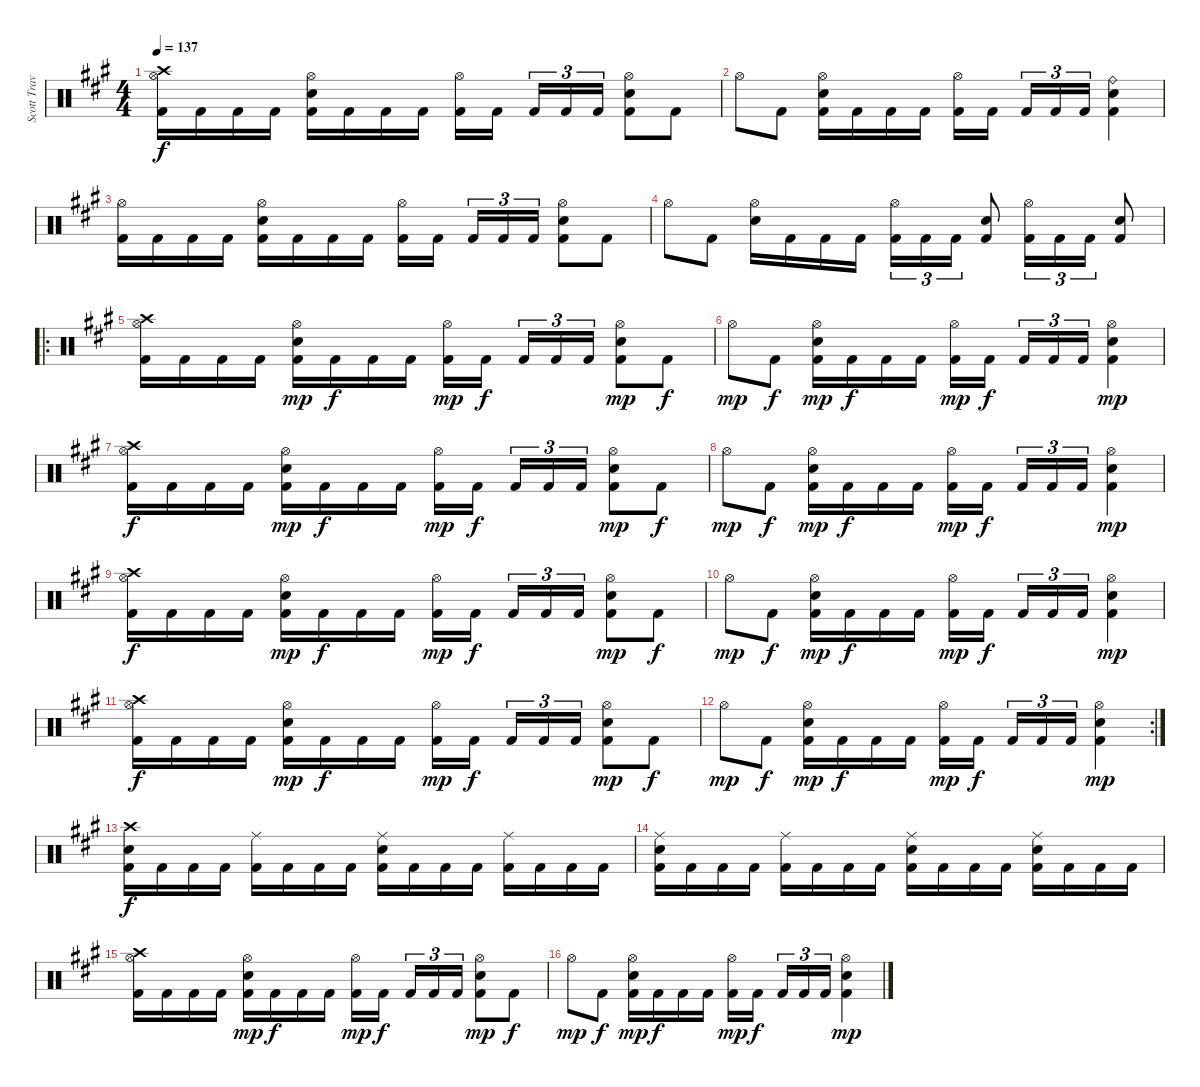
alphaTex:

\track ("Scott Travis" "Scott Trav") {instrument percussion}
\staff {score}
\articulation defaults
\ts (4 4)
\tempo 137
\clef neutral
\ks f#minor
("Hi-Hat (open)" "Crash high (hit)" "Kick (hit) 2").16{dy f} "Kick (hit) 2".16 "Kick (hit) 2".16 "Kick (hit) 2".16 ("Hi-Hat (open)" "Snare (hit) 2" "Kick (hit) 2").16 "Kick (hit) 2".16 "Kick (hit) 2".16 "Kick (hit) 2".16 ("Hi-Hat (open)" "Kick (hit) 2").16 "Kick (hit) 2".16 "Kick (hit) 2".16{tu (3 2)} "Kick (hit) 2".16{tu (3 2)} "Kick (hit) 2".16{tu (3 2)} ("Hi-Hat (open)" "Snare (hit) 2" "Kick (hit) 2").8 "Kick (hit) 2".8 |
"Hi-Hat (open)".8 "Kick (hit) 2".8 ("Hi-Hat (open)" "Snare (hit) 2" "Kick (hit) 2").16 "Kick (hit) 2".16 "Kick (hit) 2".16 "Kick (hit) 2".16 ("Hi-Hat (open)" "Kick (hit) 2").16 "Kick (hit) 2".16 "Kick (hit) 2".16{tu (3 2)} "Kick (hit) 2".16{tu (3 2)} "Kick (hit) 2".16{tu (3 2)} ("Ride (bell)" "Snare (hit) 2" "Kick (hit) 2").4 |
("Hi-Hat (open)" "Kick (hit) 2").16 "Kick (hit) 2".16 "Kick (hit) 2".16 "Kick (hit) 2".16 ("Hi-Hat (open)" "Snare (hit) 2" "Kick (hit) 2").16 "Kick (hit) 2".16 "Kick (hit) 2".16 "Kick (hit) 2".16 ("Hi-Hat (open)" "Kick (hit) 2").16 "Kick (hit) 2".16 "Kick (hit) 2".16{tu (3 2)} "Kick (hit) 2".16{tu (3 2)} "Kick (hit) 2".16{tu (3 2)} ("Hi-Hat (open)" "Snare (hit) 2" "Kick (hit) 2").8 "Kick (hit) 2".8 |
"Hi-Hat (open)".8 "Kick (hit) 2".8 ("Hi-Hat (open)" "Snare (hit) 2").16 "Kick (hit) 2".16 "Kick (hit) 2".16 "Kick (hit) 2".16 ("Hi-Hat (open)" "Kick (hit) 2").16{tu (3 2)} "Kick (hit) 2".16{tu (3 2)} "Kick (hit) 2".16{tu (3 2)} ("Snare (hit) 2" "Kick (hit) 2").8 ("Hi-Hat (open)" "Kick (hit) 2").16{tu (3 2)} "Kick (hit) 2".16{tu (3 2)} "Kick (hit) 2".16{tu (3 2)} ("Snare (hit) 2" "Kick (hit) 2").8 |
\ro
("Hi-Hat (open)" "Crash high (hit)" "Kick (hit) 2").16 "Kick (hit) 2".16 "Kick (hit) 2".16 "Kick (hit) 2".16 ("Hi-Hat (open)" "Snare (hit) 2" "Kick (hit) 2").16{dy mp} "Kick (hit) 2".16{dy f} "Kick (hit) 2".16 "Kick (hit) 2".16 ("Hi-Hat (open)" "Kick (hit) 2").16{dy mp} "Kick (hit) 2".16{dy f} "Kick (hit) 2".16{tu (3 2)} "Kick (hit) 2".16{tu (3 2)} "Kick (hit) 2".16{tu (3 2)} ("Hi-Hat (open)" "Snare (hit) 2" "Kick (hit) 2").8{dy mp} "Kick (hit) 2".8{dy f} |
"Hi-Hat (open)".8{dy mp} "Kick (hit) 2".8{dy f} ("Hi-Hat (open)" "Snare (hit) 2" "Kick (hit) 2").16{dy mp} "Kick (hit) 2".16{dy f} "Kick (hit) 2".16 "Kick (hit) 2".16 ("Hi-Hat (open)" "Kick (hit) 2").16{dy mp} "Kick (hit) 2".16{dy f} "Kick (hit) 2".16{tu (3 2)} "Kick (hit) 2".16{tu (3 2)} "Kick (hit) 2".16{tu (3 2)} ("Hi-Hat (open)" "Snare (hit) 2" "Kick (hit) 2").4{dy mp} |
("Hi-Hat (open)" "Crash high (hit)" "Kick (hit) 2").16{dy f} "Kick (hit) 2".16 "Kick (hit) 2".16 "Kick (hit) 2".16 ("Hi-Hat (open)" "Snare (hit) 2" "Kick (hit) 2").16{dy mp} "Kick (hit) 2".16{dy f} "Kick (hit) 2".16 "Kick (hit) 2".16 ("Hi-Hat (open)" "Kick (hit) 2").16{dy mp} "Kick (hit) 2".16{dy f} "Kick (hit) 2".16{tu (3 2)} "Kick (hit) 2".16{tu (3 2)} "Kick (hit) 2".16{tu (3 2)} ("Hi-Hat (open)" "Snare (hit) 2" "Kick (hit) 2").8{dy mp} "Kick (hit) 2".8{dy f} |
"Hi-Hat (open)".8{dy mp} "Kick (hit) 2".8{dy f} ("Hi-Hat (open)" "Snare (hit) 2" "Kick (hit) 2").16{dy mp} "Kick (hit) 2".16{dy f} "Kick (hit) 2".16 "Kick (hit) 2".16 ("Hi-Hat (open)" "Kick (hit) 2").16{dy mp} "Kick (hit) 2".16{dy f} "Kick (hit) 2".16{tu (3 2)} "Kick (hit) 2".16{tu (3 2)} "Kick (hit) 2".16{tu (3 2)} ("Hi-Hat (open)" "Snare (hit) 2" "Kick (hit) 2").4{dy mp} |
("Hi-Hat (open)" "Crash high (hit)" "Kick (hit) 2").16{dy f} "Kick (hit) 2".16 "Kick (hit) 2".16 "Kick (hit) 2".16 ("Hi-Hat (open)" "Snare (hit) 2" "Kick (hit) 2").16{dy mp} "Kick (hit) 2".16{dy f} "Kick (hit) 2".16 "Kick (hit) 2".16 ("Hi-Hat (open)" "Kick (hit) 2").16{dy mp} "Kick (hit) 2".16{dy f} "Kick (hit) 2".16{tu (3 2)} "Kick (hit) 2".16{tu (3 2)} "Kick (hit) 2".16{tu (3 2)} ("Hi-Hat (open)" "Snare (hit) 2" "Kick (hit) 2").8{dy mp} "Kick (hit) 2".8{dy f} |
"Hi-Hat (open)".8{dy mp} "Kick (hit) 2".8{dy f} ("Hi-Hat (open)" "Snare (hit) 2" "Kick (hit) 2").16{dy mp} "Kick (hit) 2".16{dy f} "Kick (hit) 2".16 "Kick (hit) 2".16 ("Hi-Hat (open)" "Kick (hit) 2").16{dy mp} "Kick (hit) 2".16{dy f} "Kick (hit) 2".16{tu (3 2)} "Kick (hit) 2".16{tu (3 2)} "Kick (hit) 2".16{tu (3 2)} ("Hi-Hat (open)" "Snare (hit) 2" "Kick (hit) 2").4{dy mp} |
("Hi-Hat (open)" "Crash high (hit)" "Kick (hit) 2").16{dy f} "Kick (hit) 2".16 "Kick (hit) 2".16 "Kick (hit) 2".16 ("Hi-Hat (open)" "Snare (hit) 2" "Kick (hit) 2").16{dy mp} "Kick (hit) 2".16{dy f} "Kick (hit) 2".16 "Kick (hit) 2".16 ("Hi-Hat (open)" "Kick (hit) 2").16{dy mp} "Kick (hit) 2".16{dy f} "Kick (hit) 2".16{tu (3 2)} "Kick (hit) 2".16{tu (3 2)} "Kick (hit) 2".16{tu (3 2)} ("Hi-Hat (open)" "Snare (hit) 2" "Kick (hit) 2").8{dy mp} "Kick (hit) 2".8{dy f} |
\rc 2 "Hi-Hat (open)".8{dy mp} "Kick (hit) 2".8{dy f}
("Hi-Hat (open)" "Snare (hit) 2" "Kick (hit) 2").16{dy mp} "Kick (hit) 2".16{dy f} "Kick (hit) 2".16 "Kick (hit) 2".16 ("Hi-Hat (open)" "Kick (hit) 2").16{dy mp} "Kick (hit) 2".16{dy f} "Kick (hit) 2".16{tu (3 2)} "Kick (hit) 2".16{tu (3 2)} "Kick (hit) 2".16{tu (3 2)} ("Hi-Hat (open)" "Snare (hit) 2" "Kick (hit) 2").4{dy mp} |
("Crash high (hit)" "Snare (hit) 2" "Kick (hit) 2").16{dy f} "Kick (hit) 2".16 "Kick (hit) 2".16 "Kick (hit) 2".16 ("Ride (middle)" "Kick (hit) 2").16 "Kick (hit) 2".16 "Kick (hit) 2".16 "Kick (hit) 2".16 ("Ride (middle)" "Snare (hit) 2" "Kick (hit) 2").16 "Kick (hit) 2".16 "Kick (hit) 2".16 "Kick (hit) 2".16 ("Ride (middle)" "Kick (hit) 2").16 "Kick (hit) 2".16 "Kick (hit) 2".16 "Kick (hit) 2".16 |
("Ride (middle)" "Snare (hit) 2" "Kick (hit) 2").16 "Kick (hit) 2".16 "Kick (hit) 2".16 "Kick (hit) 2".16 ("Ride (middle)" "Kick (hit) 2").16 "Kick (hit) 2".16 "Kick (hit) 2".16 "Kick (hit) 2".16 ("Ride (middle)" "Snare (hit) 2" "Kick (hit) 2").16 "Kick (hit) 2".16 "Kick (hit) 2".16 "Kick (hit) 2".16 ("Ride (middle)" "Snare (hit) 2" "Kick (hit) 2").16 "Kick (hit) 2".16 "Kick (hit) 2".16 "Kick (hit) 2".16 |
("Hi-Hat (open)" "Crash high (hit)" "Kick (hit) 2").16 "Kick (hit) 2".16 "Kick (hit) 2".16 "Kick (hit) 2".16 ("Hi-Hat (open)" "Snare (hit) 2" "Kick (hit) 2").16{dy mp} "Kick (hit) 2".16{dy f} "Kick (hit) 2".16 "Kick (hit) 2".16 ("Hi-Hat (open)" "Kick (hit) 2").16{dy mp} "Kick (hit) 2".16{dy f} "Kick (hit) 2".16{tu (3 2)} "Kick (hit) 2".16{tu (3 2)} "Kick (hit) 2".16{tu (3 2)} ("Hi-Hat (open)" "Snare (hit) 2" "Kick (hit) 2").8{dy mp} "Kick (hit) 2".8{dy f} |
"Hi-Hat (open)".8{dy mp} "Kick (hit) 2".8{dy f} ("Hi-Hat (open)" "Snare (hit) 2" "Kick (hit) 2").16{dy mp} "Kick (hit) 2".16{dy f} "Kick (hit) 2".16 "Kick (hit) 2".16 ("Hi-Hat (open)" "Kick (hit) 2").16{dy mp} "Kick (hit) 2".16{dy f} "Kick (hit) 2".16{tu (3 2)} "Kick (hit) 2".16{tu (3 2)} "Kick (hit) 2".16{tu (3 2)} ("Hi-Hat (open)" "Snare (hit) 2" "Kick (hit) 2").4{dy mp}
